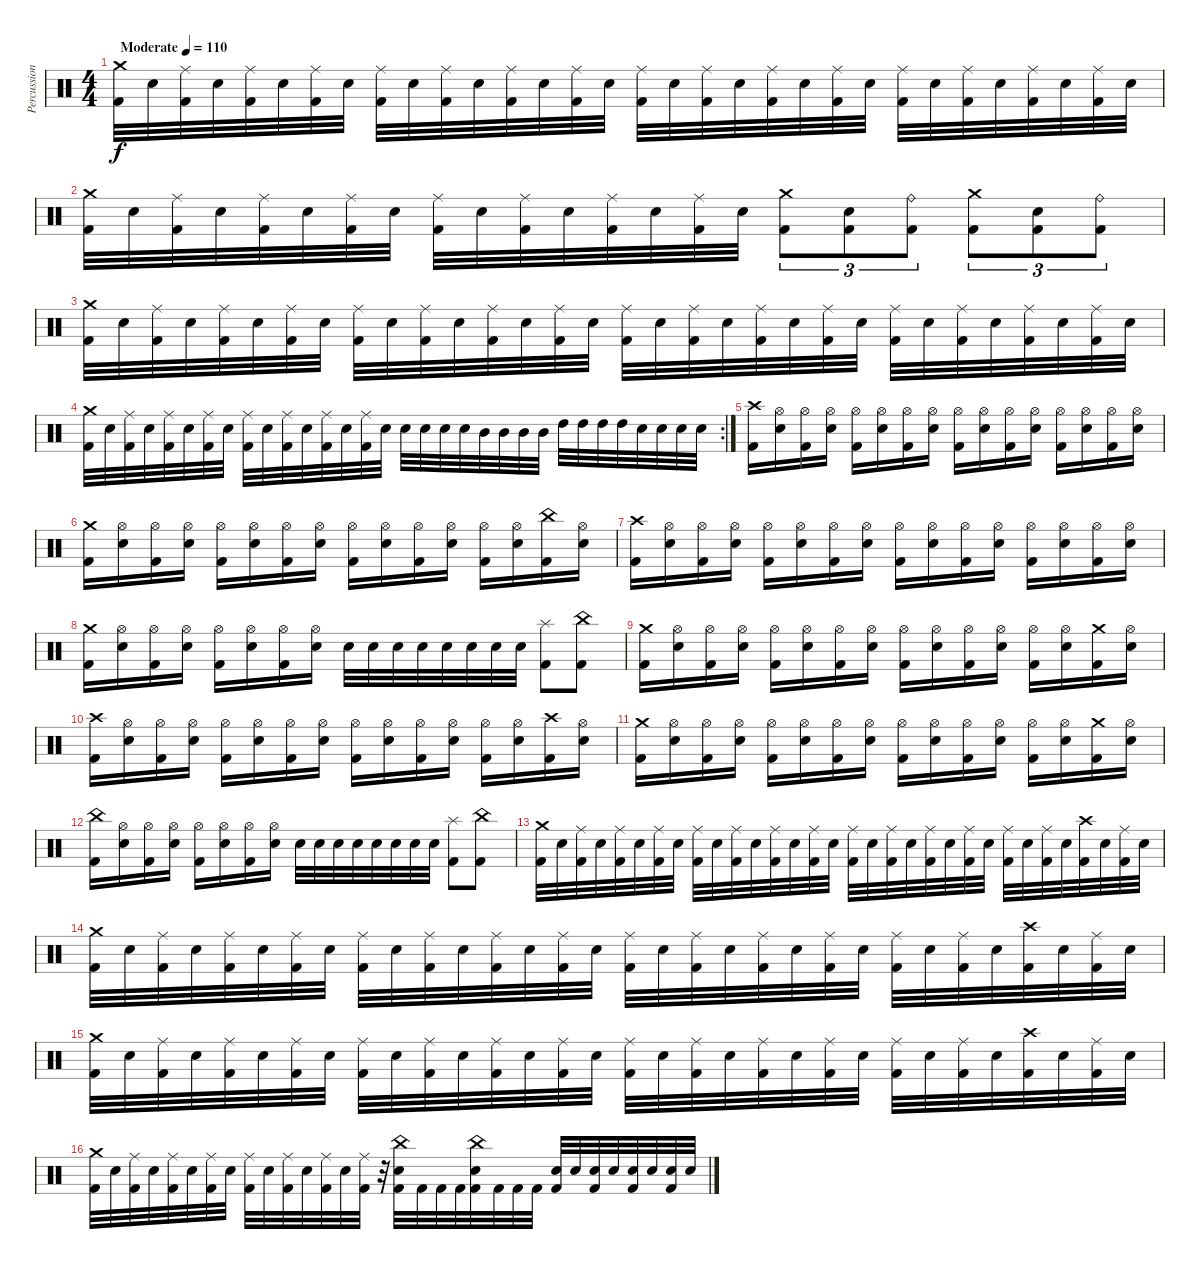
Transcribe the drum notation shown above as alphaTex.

\track ("Percussion" "Percussion") {instrument percussion}
\staff {score}
\articulation defaults
\ts (4 4)
\tempo (110 "Moderate")
\clef neutral
\ks c
("Crash medium (hit)" "Kick (hit) 2").32{dy f} "Electric Snare (hit)".32 ("Ride (middle)" "Kick (hit) 2").32 "Electric Snare (hit)".32 ("Ride (middle)" "Kick (hit) 2").32 "Electric Snare (hit)".32 ("Ride (middle)" "Kick (hit) 2").32 "Electric Snare (hit)".32 ("Ride (middle)" "Kick (hit) 2").32 "Electric Snare (hit)".32 ("Ride (middle)" "Kick (hit) 2").32 "Electric Snare (hit)".32 ("Ride (middle)" "Kick (hit) 2").32 "Electric Snare (hit)".32 ("Ride (middle)" "Kick (hit) 2").32 "Electric Snare (hit)".32 ("Ride (middle)" "Kick (hit) 2").32 "Electric Snare (hit)".32 ("Ride (middle)" "Kick (hit) 2").32 "Electric Snare (hit)".32 ("Ride (middle)" "Kick (hit) 2").32 "Electric Snare (hit)".32 ("Ride (middle)" "Kick (hit) 2").32 "Electric Snare (hit)".32 ("Ride (middle)" "Kick (hit) 2").32 "Electric Snare (hit)".32 ("Ride (middle)" "Kick (hit) 2").32 "Electric Snare (hit)".32 ("Ride (middle)" "Kick (hit) 2").32 "Electric Snare (hit)".32 ("Ride (middle)" "Kick (hit) 2").32 "Electric Snare (hit)".32 |
("Crash medium (hit)" "Kick (hit) 2").32 "Electric Snare (hit)".32 ("Ride (middle)" "Kick (hit) 2").32 "Electric Snare (hit)".32 ("Ride (middle)" "Kick (hit) 2").32 "Electric Snare (hit)".32 ("Ride (middle)" "Kick (hit) 2").32 "Electric Snare (hit)".32 ("Ride (middle)" "Kick (hit) 2").32 "Electric Snare (hit)".32 ("Ride (middle)" "Kick (hit) 2").32 "Electric Snare (hit)".32 ("Ride (middle)" "Kick (hit) 2").32 "Electric Snare (hit)".32 ("Ride (middle)" "Kick (hit) 2").32 "Electric Snare (hit)".32 ("Crash medium (hit)" "Kick (hit) 2").8{tu (3 2)} ("Electric Snare (hit)" "Kick (hit) 2").8{tu (3 2)} ("Ride (bell)" "Kick (hit) 2").8{tu (3 2)} ("Crash medium (hit)" "Kick (hit) 2").8{tu (3 2)} ("Electric Snare (hit)" "Kick (hit) 2").8{tu (3 2)} ("Ride (bell)" "Kick (hit) 2").8{tu (3 2)} |
("Crash medium (hit)" "Kick (hit) 2").32 "Electric Snare (hit)".32 ("Ride (middle)" "Kick (hit) 2").32 "Electric Snare (hit)".32 ("Ride (middle)" "Kick (hit) 2").32 "Electric Snare (hit)".32 ("Ride (middle)" "Kick (hit) 2").32 "Electric Snare (hit)".32 ("Ride (middle)" "Kick (hit) 2").32 "Electric Snare (hit)".32 ("Ride (middle)" "Kick (hit) 2").32 "Electric Snare (hit)".32 ("Ride (middle)" "Kick (hit) 2").32 "Electric Snare (hit)".32 ("Ride (middle)" "Kick (hit) 2").32 "Electric Snare (hit)".32 ("Ride (middle)" "Kick (hit) 2").32 "Electric Snare (hit)".32 ("Ride (middle)" "Kick (hit) 2").32 "Electric Snare (hit)".32 ("Ride (middle)" "Kick (hit) 2").32 "Electric Snare (hit)".32 ("Ride (middle)" "Kick (hit) 2").32 "Electric Snare (hit)".32 ("Ride (middle)" "Kick (hit) 2").32 "Electric Snare (hit)".32 ("Ride (middle)" "Kick (hit) 2").32 "Electric Snare (hit)".32 ("Ride (middle)" "Kick (hit) 2").32 "Electric Snare (hit)".32 ("Ride (middle)" "Kick (hit) 2").32 "Electric Snare (hit)".32 |
\rc 2
("Crash medium (hit)" "Kick (hit) 2").32 "Electric Snare (hit)".32 ("Ride (middle)" "Kick (hit) 2").32 "Electric Snare (hit)".32 ("Ride (middle)" "Kick (hit) 2").32 "Electric Snare (hit)".32 ("Ride (middle)" "Kick (hit) 2").32 "Electric Snare (hit)".32 ("Ride (middle)" "Kick (hit) 2").32 "Electric Snare (hit)".32 ("Ride (middle)" "Kick (hit) 2").32 "Electric Snare (hit)".32 ("Ride (middle)" "Kick (hit) 2").32 "Electric Snare (hit)".32 ("Ride (middle)" "Kick (hit) 2").32 "Electric Snare (hit)".32 "Electric Snare (hit)".32 "Electric Snare (hit)".32 "Electric Snare (hit)".32 "Electric Snare (hit)".32 "Mid Tom (hit)".32 "Mid Tom (hit)".32 "Mid Tom (hit)".32 "Mid Tom (hit)".32 "High Tom (hit)".32 "High Tom (hit)".32 "High Tom (hit)".32 "High Tom (hit)".32 "Electric Snare (hit)".32 "Electric Snare (hit)".32 "Electric Snare (hit)".32 "Electric Snare (hit)".32 |
("Crash high (hit)" "Kick (hit) 2").16 ("Hi-Hat (open)" "Electric Snare (hit)").16 ("Hi-Hat (open)" "Kick (hit) 2").16 ("Hi-Hat (open)" "Electric Snare (hit)").16 ("Hi-Hat (open)" "Kick (hit) 2").16 ("Hi-Hat (open)" "Electric Snare (hit)").16 ("Hi-Hat (open)" "Kick (hit) 2").16 ("Hi-Hat (open)" "Electric Snare (hit)").16 ("Hi-Hat (open)" "Kick (hit) 2").16 ("Hi-Hat (open)" "Electric Snare (hit)").16 ("Hi-Hat (open)" "Kick (hit) 2").16 ("Hi-Hat (open)" "Electric Snare (hit)").16 ("Hi-Hat (open)" "Kick (hit) 2").16 ("Hi-Hat (open)" "Electric Snare (hit)").16 ("Hi-Hat (open)" "Kick (hit) 2").16 ("Hi-Hat (open)" "Electric Snare (hit)").16 |
("Crash medium (hit)" "Kick (hit) 2").16 ("Hi-Hat (open)" "Electric Snare (hit)").16 ("Hi-Hat (open)" "Kick (hit) 2").16 ("Hi-Hat (open)" "Electric Snare (hit)").16 ("Hi-Hat (open)" "Kick (hit) 2").16 ("Hi-Hat (open)" "Electric Snare (hit)").16 ("Hi-Hat (open)" "Kick (hit) 2").16 ("Hi-Hat (open)" "Electric Snare (hit)").16 ("Hi-Hat (open)" "Kick (hit) 2").16 ("Hi-Hat (open)" "Electric Snare (hit)").16 ("Hi-Hat (open)" "Kick (hit) 2").16 ("Hi-Hat (open)" "Electric Snare (hit)").16 ("Hi-Hat (open)" "Kick (hit) 2").16 ("Hi-Hat (open)" "Electric Snare (hit)").16 ("China (hit)" "Kick (hit) 2").16 ("Hi-Hat (open)" "Electric Snare (hit)").16 |
("Crash high (hit)" "Kick (hit) 2").16 ("Hi-Hat (open)" "Electric Snare (hit)").16 ("Hi-Hat (open)" "Kick (hit) 2").16 ("Hi-Hat (open)" "Electric Snare (hit)").16 ("Hi-Hat (open)" "Kick (hit) 2").16 ("Hi-Hat (open)" "Electric Snare (hit)").16 ("Hi-Hat (open)" "Kick (hit) 2").16 ("Hi-Hat (open)" "Electric Snare (hit)").16 ("Hi-Hat (open)" "Kick (hit) 2").16 ("Hi-Hat (open)" "Electric Snare (hit)").16 ("Hi-Hat (open)" "Kick (hit) 2").16 ("Hi-Hat (open)" "Electric Snare (hit)").16 ("Hi-Hat (open)" "Kick (hit) 2").16 ("Hi-Hat (open)" "Electric Snare (hit)").16 ("Hi-Hat (open)" "Kick (hit) 2").16 ("Hi-Hat (open)" "Electric Snare (hit)").16 |
("Crash medium (hit)" "Kick (hit) 2").16 ("Hi-Hat (open)" "Electric Snare (hit)").16 ("Hi-Hat (open)" "Kick (hit) 2").16 ("Hi-Hat (open)" "Electric Snare (hit)").16 ("Hi-Hat (open)" "Kick (hit) 2").16 ("Hi-Hat (open)" "Electric Snare (hit)").16 ("Hi-Hat (open)" "Kick (hit) 2").16 ("Hi-Hat (open)" "Electric Snare (hit)").16 "Electric Snare (hit)".32 "Electric Snare (hit)".32 "Electric Snare (hit)".32 "Electric Snare (hit)".32 "Electric Snare (hit)".32 "Electric Snare (hit)".32 "Electric Snare (hit)".32 "Electric Snare (hit)".32 ("Splash (hit)" "Kick (hit) 2").8 ("China (hit)" "Kick (hit) 2").8 |
("Crash medium (hit)" "Kick (hit) 2").16 ("Hi-Hat (open)" "Electric Snare (hit)").16 ("Hi-Hat (open)" "Kick (hit) 2").16 ("Hi-Hat (open)" "Electric Snare (hit)").16 ("Hi-Hat (open)" "Kick (hit) 2").16 ("Hi-Hat (open)" "Electric Snare (hit)").16 ("Hi-Hat (open)" "Kick (hit) 2").16 ("Hi-Hat (open)" "Electric Snare (hit)").16 ("Hi-Hat (open)" "Kick (hit) 2").16 ("Hi-Hat (open)" "Electric Snare (hit)").16 ("Hi-Hat (open)" "Kick (hit) 2").16 ("Hi-Hat (open)" "Electric Snare (hit)").16 ("Hi-Hat (open)" "Kick (hit) 2").16 ("Hi-Hat (open)" "Electric Snare (hit)").16 ("Crash medium (hit)" "Kick (hit) 2").16 ("Hi-Hat (open)" "Electric Snare (hit)").16 |
("Crash high (hit)" "Kick (hit) 2").16 ("Hi-Hat (open)" "Electric Snare (hit)").16 ("Hi-Hat (open)" "Kick (hit) 2").16 ("Hi-Hat (open)" "Electric Snare (hit)").16 ("Hi-Hat (open)" "Kick (hit) 2").16 ("Hi-Hat (open)" "Electric Snare (hit)").16 ("Hi-Hat (open)" "Kick (hit) 2").16 ("Hi-Hat (open)" "Electric Snare (hit)").16 ("Hi-Hat (open)" "Kick (hit) 2").16 ("Hi-Hat (open)" "Electric Snare (hit)").16 ("Hi-Hat (open)" "Kick (hit) 2").16 ("Hi-Hat (open)" "Electric Snare (hit)").16 ("Hi-Hat (open)" "Kick (hit) 2").16 ("Hi-Hat (open)" "Electric Snare (hit)").16 ("Crash high (hit)" "Kick (hit) 2").16 ("Hi-Hat (open)" "Electric Snare (hit)").16 |
("Crash medium (hit)" "Kick (hit) 2").16 ("Hi-Hat (open)" "Electric Snare (hit)").16 ("Hi-Hat (open)" "Kick (hit) 2").16 ("Hi-Hat (open)" "Electric Snare (hit)").16 ("Hi-Hat (open)" "Kick (hit) 2").16 ("Hi-Hat (open)" "Electric Snare (hit)").16 ("Hi-Hat (open)" "Kick (hit) 2").16 ("Hi-Hat (open)" "Electric Snare (hit)").16 ("Hi-Hat (open)" "Kick (hit) 2").16 ("Hi-Hat (open)" "Electric Snare (hit)").16 ("Hi-Hat (open)" "Kick (hit) 2").16 ("Hi-Hat (open)" "Electric Snare (hit)").16 ("Hi-Hat (open)" "Kick (hit) 2").16 ("Hi-Hat (open)" "Electric Snare (hit)").16 ("Crash medium (hit)" "Kick (hit) 2").16 ("Hi-Hat (open)" "Electric Snare (hit)").16 |
("China (hit)" "Kick (hit) 2").16 ("Hi-Hat (open)" "Electric Snare (hit)").16 ("Hi-Hat (open)" "Kick (hit) 2").16 ("Hi-Hat (open)" "Electric Snare (hit)").16 ("Hi-Hat (open)" "Kick (hit) 2").16 ("Hi-Hat (open)" "Electric Snare (hit)").16 ("Hi-Hat (open)" "Kick (hit) 2").16 ("Hi-Hat (open)" "Electric Snare (hit)").16 "Electric Snare (hit)".32 "Electric Snare (hit)".32 "Electric Snare (hit)".32 "Electric Snare (hit)".32 "Electric Snare (hit)".32 "Electric Snare (hit)".32 "Electric Snare (hit)".32 "Electric Snare (hit)".32 ("Splash (hit)" "Kick (hit) 2").8 ("China (hit)" "Kick (hit) 2").8 |
("Crash medium (hit)" "Kick (hit) 2").32 "Electric Snare (hit)".32 ("Ride (middle)" "Kick (hit) 2").32 "Electric Snare (hit)".32 ("Ride (middle)" "Kick (hit) 2").32 "Electric Snare (hit)".32 ("Ride (middle)" "Kick (hit) 2").32 "Electric Snare (hit)".32 ("Ride (middle)" "Kick (hit) 2").32 "Electric Snare (hit)".32 ("Ride (middle)" "Kick (hit) 2").32 "Electric Snare (hit)".32 ("Ride (middle)" "Kick (hit) 2").32 "Electric Snare (hit)".32 ("Ride (middle)" "Kick (hit) 2").32 "Electric Snare (hit)".32 ("Ride (middle)" "Kick (hit) 2").32 "Electric Snare (hit)".32 ("Ride (middle)" "Kick (hit) 2").32 "Electric Snare (hit)".32 ("Ride (middle)" "Kick (hit) 2").32 "Electric Snare (hit)".32 ("Ride (middle)" "Kick (hit) 2").32 "Electric Snare (hit)".32 ("Ride (middle)" "Kick (hit) 2").32 "Electric Snare (hit)".32 ("Ride (middle)" "Kick (hit) 2").32 "Electric Snare (hit)".32 ("Crash high (hit)" "Kick (hit) 2").32 "Electric Snare (hit)".32 ("Ride (middle)" "Kick (hit) 2").32 "Electric Snare (hit)".32 |
("Crash medium (hit)" "Kick (hit) 2").32 "Electric Snare (hit)".32 ("Ride (middle)" "Kick (hit) 2").32 "Electric Snare (hit)".32 ("Ride (middle)" "Kick (hit) 2").32 "Electric Snare (hit)".32 ("Ride (middle)" "Kick (hit) 2").32 "Electric Snare (hit)".32 ("Ride (middle)" "Kick (hit) 2").32 "Electric Snare (hit)".32 ("Ride (middle)" "Kick (hit) 2").32 "Electric Snare (hit)".32 ("Ride (middle)" "Kick (hit) 2").32 "Electric Snare (hit)".32 ("Ride (middle)" "Kick (hit) 2").32 "Electric Snare (hit)".32 ("Ride (middle)" "Kick (hit) 2").32 "Electric Snare (hit)".32 ("Ride (middle)" "Kick (hit) 2").32 "Electric Snare (hit)".32 ("Ride (middle)" "Kick (hit) 2").32 "Electric Snare (hit)".32 ("Ride (middle)" "Kick (hit) 2").32 "Electric Snare (hit)".32 ("Ride (middle)" "Kick (hit) 2").32 "Electric Snare (hit)".32 ("Ride (middle)" "Kick (hit) 2").32 "Electric Snare (hit)".32 ("Crash high (hit)" "Kick (hit) 2").32 "Electric Snare (hit)".32 ("Ride (middle)" "Kick (hit) 2").32 "Electric Snare (hit)".32 |
("Crash medium (hit)" "Kick (hit) 2").32 "Electric Snare (hit)".32 ("Ride (middle)" "Kick (hit) 2").32 "Electric Snare (hit)".32 ("Ride (middle)" "Kick (hit) 2").32 "Electric Snare (hit)".32 ("Ride (middle)" "Kick (hit) 2").32 "Electric Snare (hit)".32 ("Ride (middle)" "Kick (hit) 2").32 "Electric Snare (hit)".32 ("Ride (middle)" "Kick (hit) 2").32 "Electric Snare (hit)".32 ("Ride (middle)" "Kick (hit) 2").32 "Electric Snare (hit)".32 ("Ride (middle)" "Kick (hit) 2").32 "Electric Snare (hit)".32 ("Ride (middle)" "Kick (hit) 2").32 "Electric Snare (hit)".32 ("Ride (middle)" "Kick (hit) 2").32 "Electric Snare (hit)".32 ("Ride (middle)" "Kick (hit) 2").32 "Electric Snare (hit)".32 ("Ride (middle)" "Kick (hit) 2").32 "Electric Snare (hit)".32 ("Ride (middle)" "Kick (hit) 2").32 "Electric Snare (hit)".32 ("Ride (middle)" "Kick (hit) 2").32 "Electric Snare (hit)".32 ("Crash high (hit)" "Kick (hit) 2").32 "Electric Snare (hit)".32 ("Ride (middle)" "Kick (hit) 2").32 "Electric Snare (hit)".32 |
("Crash medium (hit)" "Kick (hit) 2").32 "Electric Snare (hit)".32 ("Ride (middle)" "Kick (hit) 2").32 "Electric Snare (hit)".32 ("Ride (middle)" "Kick (hit) 2").32 "Electric Snare (hit)".32 ("Ride (middle)" "Kick (hit) 2").32 "Electric Snare (hit)".32 ("Ride (middle)" "Kick (hit) 2").32 "Electric Snare (hit)".32 ("Ride (middle)" "Kick (hit) 2").32 "Electric Snare (hit)".32 ("Ride (middle)" "Kick (hit) 2").32 "Electric Snare (hit)".32 ("Ride (middle)" "Kick (hit) 2").32 r.32 ("China (hit)" "Electric Snare (hit)" "Kick (hit) 2").32 "Kick (hit) 2".32 "Kick (hit) 2".32 "Kick (hit) 2".32 ("China (hit)" "Electric Snare (hit)" "Kick (hit) 2").32 "Kick (hit) 2".32 "Kick (hit) 2".32 "Kick (hit) 2".32 ("Electric Snare (hit)" "Kick (hit) 2").32 "Electric Snare (hit)".32 ("Electric Snare (hit)" "Kick (hit) 2").32 "Electric Snare (hit)".32 ("Electric Snare (hit)" "Kick (hit) 2").32 "Electric Snare (hit)".32 ("Electric Snare (hit)" "Kick (hit) 2").32 "Electric Snare (hit)".32
